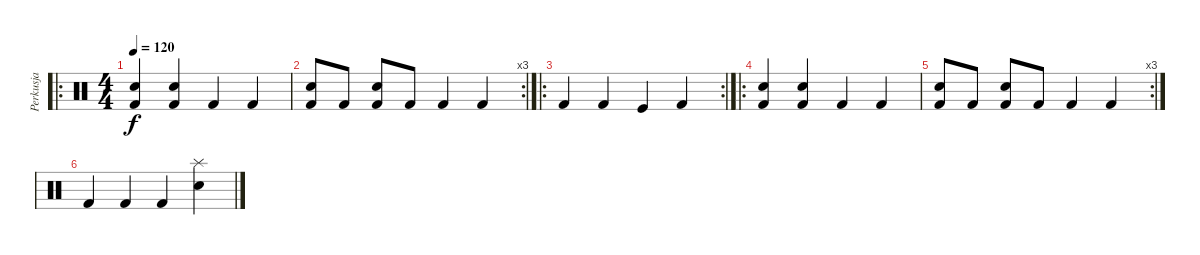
\track ("Perkusja" "Perkusja") {instrument percussion}
\staff {score}
\articulation defaults
\ro
\ts (4 4)
\tempo 120
\clef neutral
\ks c
("Kick (hit) 2" "Electric Snare (hit)").4{dy f} ("Kick (hit) 2" "Electric Snare (hit)").4 "Kick (hit) 2".4 "Kick (hit) 2".4 |
\rc 3
("Kick (hit) 2" "Electric Snare (hit)").8 "Kick (hit) 2".8 ("Kick (hit) 2" "Electric Snare (hit)").8 "Kick (hit) 2".8 "Kick (hit) 2".4 "Kick (hit) 2".4 |
\ro
\rc 2 "Kick (hit) 2".4 "Kick (hit) 2".4 "Kick (hit)".4 "Kick (hit) 2".4
|
\ro
("Kick (hit) 2" "Electric Snare (hit)").4 ("Kick (hit) 2" "Electric Snare (hit)").4 "Kick (hit) 2".4 "Kick (hit) 2".4 |
\rc 3
("Kick (hit) 2" "Electric Snare (hit)").8 "Kick (hit) 2".8 ("Kick (hit) 2" "Electric Snare (hit)").8 "Kick (hit) 2".8 "Kick (hit) 2".4 "Kick (hit) 2".4 |
"Kick (hit) 2".4 "Kick (hit) 2".4 "Kick (hit) 2".4 ("Splash (hit)" "Electric Snare (hit)").4
